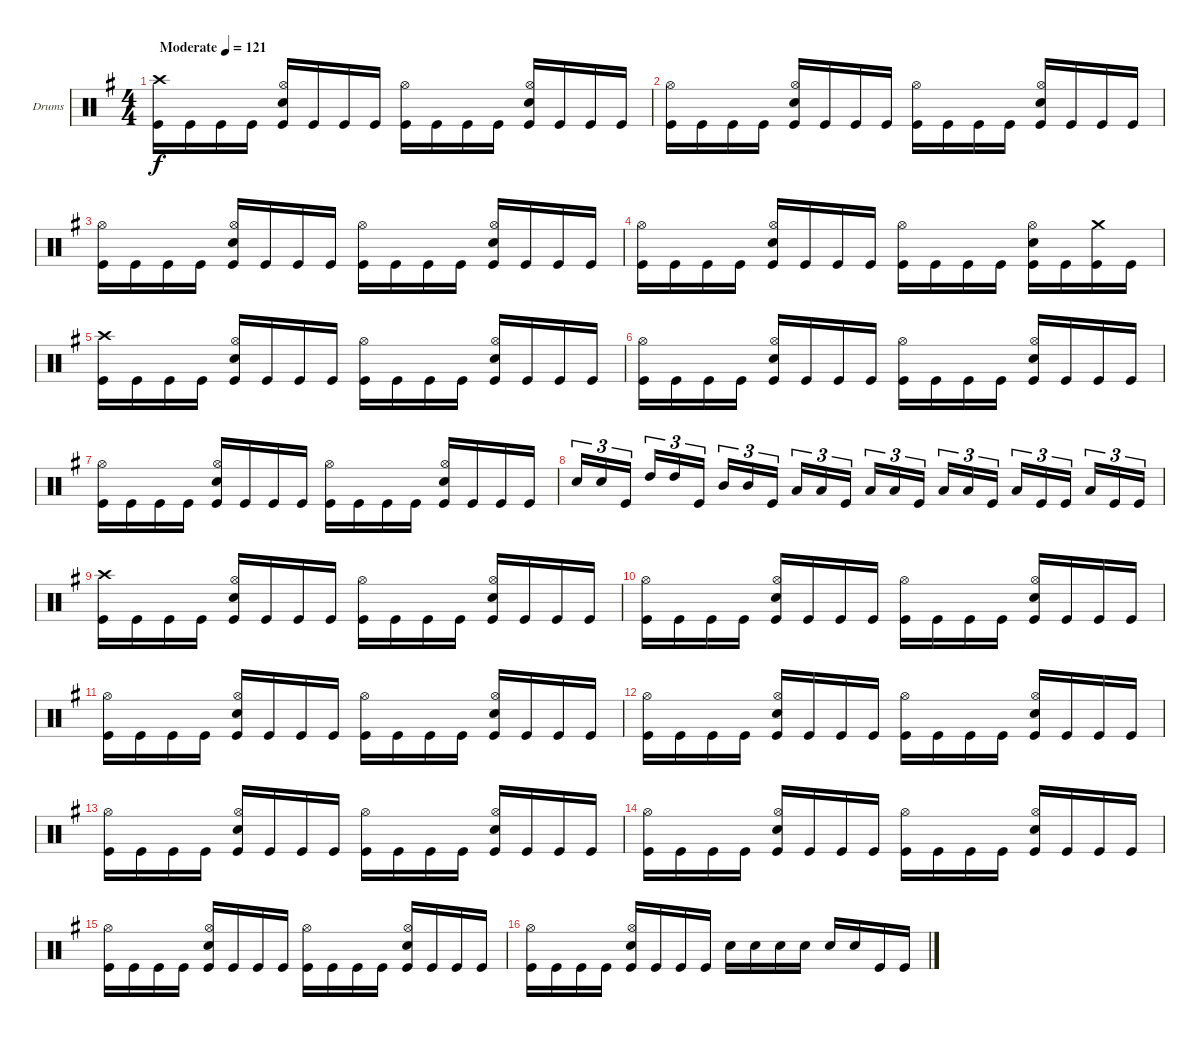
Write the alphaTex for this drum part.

\bracketExtendMode groupsimilarinstruments
\firstSystemTrackNameOrientation horizontal
\otherSystemsTrackNameOrientation horizontal
\track ("Drumkit" "Drums") {instrument percussion}
\staff {score}
\articulation defaults
\ts (4 4)
\beaming (8 2 2 2 2)
\tempo (121 "Moderate")
\clef neutral
\scale
0.504425
\ks g
("Crash high (hit)" "Kick (hit)").16{dy f} "Kick (hit)".16 "Kick (hit)".16 "Kick (hit)".16 ("Hi-Hat (open)" "Snare (hit) 2" "Kick (hit)").16 "Kick (hit)".16 "Kick (hit)".16 "Kick (hit)".16 ("Hi-Hat (open)" "Kick (hit)").16 "Kick (hit)".16 "Kick (hit)".16 "Kick (hit)".16 ("Hi-Hat (open)" "Snare (hit) 2" "Kick (hit)").16 "Kick (hit)".16 "Kick (hit)".16 "Kick (hit)".16 |
\scale
0.247788 ("Hi-Hat (open)" "Kick (hit)").16 "Kick (hit)".16 "Kick (hit)".16 "Kick (hit)".16 ("Hi-Hat (open)" "Snare (hit) 2" "Kick (hit)").16 "Kick (hit)".16 "Kick (hit)".16 "Kick (hit)".16 ("Hi-Hat (open)" "Kick (hit)").16 "Kick (hit)".16 "Kick (hit)".16 "Kick (hit)".16 ("Hi-Hat (open)" "Snare (hit) 2" "Kick (hit)").16 "Kick (hit)".16 "Kick (hit)".16 "Kick (hit)".16 |
\scale
0.247788 ("Hi-Hat (open)" "Kick (hit)").16 "Kick (hit)".16 "Kick (hit)".16 "Kick (hit)".16 ("Hi-Hat (open)" "Snare (hit) 2" "Kick (hit)").16 "Kick (hit)".16 "Kick (hit)".16 "Kick (hit)".16 ("Hi-Hat (open)" "Kick (hit)").16 "Kick (hit)".16 "Kick (hit)".16 "Kick (hit)".16 ("Hi-Hat (open)" "Snare (hit) 2" "Kick (hit)").16 "Kick (hit)".16 "Kick (hit)".16 "Kick (hit)".16 |
\scale
0.333333 ("Hi-Hat (open)" "Kick (hit)").16 "Kick (hit)".16 "Kick (hit)".16 "Kick (hit)".16 ("Hi-Hat (open)" "Snare (hit) 2" "Kick (hit)").16 "Kick (hit)".16 "Kick (hit)".16 "Kick (hit)".16 ("Hi-Hat (open)" "Kick (hit)").16 "Kick (hit)".16 "Kick (hit)".16 "Kick (hit)".16 ("Hi-Hat (open)" "Snare (hit) 2" "Kick (hit)").16 "Kick (hit)".16 ("Kick (hit)" "Crash medium (hit)").16 "Kick (hit)".16 |
\scale
0.333333 ("Crash high (hit)" "Kick (hit)").16 "Kick (hit)".16 "Kick (hit)".16 "Kick (hit)".16 ("Hi-Hat (open)" "Snare (hit) 2" "Kick (hit)").16 "Kick (hit)".16 "Kick (hit)".16 "Kick (hit)".16 ("Hi-Hat (open)" "Kick (hit)").16 "Kick (hit)".16 "Kick (hit)".16 "Kick (hit)".16 ("Hi-Hat (open)" "Snare (hit) 2" "Kick (hit)").16 "Kick (hit)".16 "Kick (hit)".16 "Kick (hit)".16 |
\scale
0.333333 ("Hi-Hat (open)" "Kick (hit)").16 "Kick (hit)".16 "Kick (hit)".16 "Kick (hit)".16 ("Hi-Hat (open)" "Snare (hit) 2" "Kick (hit)").16 "Kick (hit)".16 "Kick (hit)".16 "Kick (hit)".16 ("Hi-Hat (open)" "Kick (hit)").16 "Kick (hit)".16 "Kick (hit)".16 "Kick (hit)".16 ("Hi-Hat (open)" "Snare (hit) 2" "Kick (hit)").16 "Kick (hit)".16 "Kick (hit)".16 "Kick (hit)".16 |
\scale
0.333333 ("Hi-Hat (open)" "Kick (hit)").16 "Kick (hit)".16 "Kick (hit)".16 "Kick (hit)".16 ("Hi-Hat (open)" "Snare (hit) 2" "Kick (hit)").16 "Kick (hit)".16 "Kick (hit)".16 "Kick (hit)".16 ("Hi-Hat (open)" "Kick (hit)").16 "Kick (hit)".16 "Kick (hit)".16 "Kick (hit)".16 ("Hi-Hat (open)" "Snare (hit) 2" "Kick (hit)").16 "Kick (hit)".16 "Kick (hit)".16 "Kick (hit)".16 |
\scale
0.333333 "Snare (hit) 2".16{tu (3 2)} "Snare (hit) 2".16{tu (3 2)} "Kick (hit)".16{tu (3 2)} "High Tom (hit)".16{tu (3 2)} "High Tom (hit)".16{tu (3 2)} "Kick (hit)".16{tu (3 2)} "Mid Tom (hit)".16{tu (3 2)} "Mid Tom (hit)".16{tu (3 2)} "Kick (hit)".16{tu (3 2)} "Low Tom (hit)".16{tu (3 2)} "Low Tom (hit)".16{tu (3 2)} "Kick (hit)".16{tu (3 2)} "Low Tom (hit)".16{tu (3 2)} "Low Tom (hit)".16{tu (3 2)} "Kick (hit)".16{tu (3 2)} "Low Tom (hit)".16{tu (3 2)} "Low Tom (hit)".16{tu (3 2)} "Kick (hit)".16{tu (3 2)} "Low Tom (hit)".16{tu (3 2)} "Kick (hit)".16{tu (3 2)} "Kick (hit)".16{tu (3 2)} "Low Tom (hit)".16{tu (3 2)} "Kick (hit)".16{tu (3 2)} "Kick (hit)".16{tu (3 2)} |
\scale
0.333333 ("Crash high (hit)" "Kick (hit)").16 "Kick (hit)".16 "Kick (hit)".16 "Kick (hit)".16 ("Hi-Hat (open)" "Snare (hit) 2" "Kick (hit)").16 "Kick (hit)".16 "Kick (hit)".16 "Kick (hit)".16 ("Hi-Hat (open)" "Kick (hit)").16 "Kick (hit)".16 "Kick (hit)".16 "Kick (hit)".16 ("Hi-Hat (open)" "Snare (hit) 2" "Kick (hit)").16 "Kick (hit)".16 "Kick (hit)".16 "Kick (hit)".16 |
\scale
0.333333 ("Hi-Hat (open)" "Kick (hit)").16 "Kick (hit)".16 "Kick (hit)".16 "Kick (hit)".16 ("Hi-Hat (open)" "Snare (hit) 2" "Kick (hit)").16 "Kick (hit)".16 "Kick (hit)".16 "Kick (hit)".16 ("Hi-Hat (open)" "Kick (hit)").16 "Kick (hit)".16 "Kick (hit)".16 "Kick (hit)".16 ("Hi-Hat (open)" "Snare (hit) 2" "Kick (hit)").16 "Kick (hit)".16 "Kick (hit)".16 "Kick (hit)".16 |
\scale
0.333333 ("Hi-Hat (open)" "Kick (hit)").16 "Kick (hit)".16 "Kick (hit)".16 "Kick (hit)".16 ("Hi-Hat (open)" "Snare (hit) 2" "Kick (hit)").16 "Kick (hit)".16 "Kick (hit)".16 "Kick (hit)".16 ("Hi-Hat (open)" "Kick (hit)").16 "Kick (hit)".16 "Kick (hit)".16 "Kick (hit)".16 ("Hi-Hat (open)" "Snare (hit) 2" "Kick (hit)").16 "Kick (hit)".16 "Kick (hit)".16 "Kick (hit)".16 |
\scale
0.333333 ("Hi-Hat (open)" "Kick (hit)").16 "Kick (hit)".16 "Kick (hit)".16 "Kick (hit)".16 ("Hi-Hat (open)" "Snare (hit) 2" "Kick (hit)").16 "Kick (hit)".16 "Kick (hit)".16 "Kick (hit)".16 ("Hi-Hat (open)" "Kick (hit)").16 "Kick (hit)".16 "Kick (hit)".16 "Kick (hit)".16 ("Hi-Hat (open)" "Snare (hit) 2" "Kick (hit)").16 "Kick (hit)".16 "Kick (hit)".16 "Kick (hit)".16 |
\scale
0.333333 ("Hi-Hat (open)" "Kick (hit)").16 "Kick (hit)".16 "Kick (hit)".16 "Kick (hit)".16 ("Hi-Hat (open)" "Snare (hit) 2" "Kick (hit)").16 "Kick (hit)".16 "Kick (hit)".16 "Kick (hit)".16 ("Hi-Hat (open)" "Kick (hit)").16 "Kick (hit)".16 "Kick (hit)".16 "Kick (hit)".16 ("Hi-Hat (open)" "Snare (hit) 2" "Kick (hit)").16 "Kick (hit)".16 "Kick (hit)".16 "Kick (hit)".16 |
\scale
0.333333 ("Hi-Hat (open)" "Kick (hit)").16 "Kick (hit)".16 "Kick (hit)".16 "Kick (hit)".16 ("Hi-Hat (open)" "Snare (hit) 2" "Kick (hit)").16 "Kick (hit)".16 "Kick (hit)".16 "Kick (hit)".16 ("Hi-Hat (open)" "Kick (hit)").16 "Kick (hit)".16 "Kick (hit)".16 "Kick (hit)".16 ("Hi-Hat (open)" "Snare (hit) 2" "Kick (hit)").16 "Kick (hit)".16 "Kick (hit)".16 "Kick (hit)".16 |
\scale
0.333333 ("Hi-Hat (open)" "Kick (hit)").16 "Kick (hit)".16 "Kick (hit)".16 "Kick (hit)".16 ("Hi-Hat (open)" "Snare (hit) 2" "Kick (hit)").16 "Kick (hit)".16 "Kick (hit)".16 "Kick (hit)".16 ("Hi-Hat (open)" "Kick (hit)").16 "Kick (hit)".16 "Kick (hit)".16 "Kick (hit)".16 ("Hi-Hat (open)" "Snare (hit) 2" "Kick (hit)").16 "Kick (hit)".16 "Kick (hit)".16 "Kick (hit)".16 |
\scale
0.333333 ("Hi-Hat (open)" "Kick (hit)").16 "Kick (hit)".16 "Kick (hit)".16 "Kick (hit)".16 ("Hi-Hat (open)" "Snare (hit) 2" "Kick (hit)").16 "Kick (hit)".16 "Kick (hit)".16 "Kick (hit)".16 "Snare (hit) 2".16 "Snare (hit) 2".16 "Snare (hit) 2".16 "Snare (hit) 2".16 "Snare (hit) 2".16 "Snare (hit) 2".16 "Kick (hit)".16 "Kick (hit)".16
